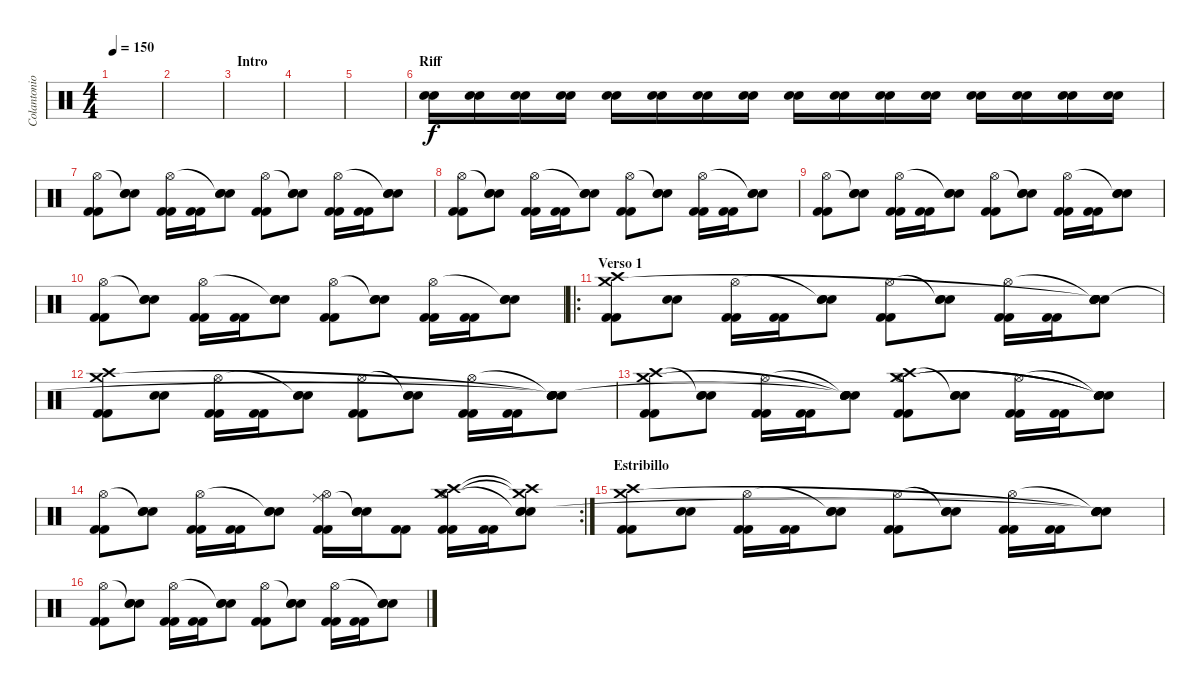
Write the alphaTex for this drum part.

\track ("Colantonio (Bateria)" "Colantonio") {instrument percussion}
\staff {score}
\articulation defaults
\ts (4 4)
\tempo 150
\clef neutral
\ks c
|
|
\section ("" "Intro")
|
|
|
\section ("" "Riff")
("Snare (hit) 2" "Snare (hit) 2").16 ("Snare (hit) 2" "Snare (hit) 2").16 ("Snare (hit) 2" "Snare (hit) 2").16 ("Snare (hit) 2" "Snare (hit) 2").16 ("Snare (hit) 2" "Snare (hit) 2").16 ("Snare (hit) 2" "Snare (hit) 2").16 ("Snare (hit) 2" "Snare (hit) 2").16 ("Snare (hit) 2" "Snare (hit) 2").16 ("Snare (hit) 2" "Snare (hit) 2").16 ("Snare (hit) 2" "Snare (hit) 2").16 ("Snare (hit) 2" "Snare (hit) 2").16 ("Snare (hit) 2" "Snare (hit) 2").16 ("Snare (hit) 2" "Snare (hit) 2").16 ("Snare (hit) 2" "Snare (hit) 2").16 ("Snare (hit) 2" "Snare (hit) 2").16 ("Snare (hit) 2" "Snare (hit) 2").16 |
("Kick (hit) 2" "Kick (hit) 2" "Hi-Hat (open)").8 ("Snare (hit) 2" "Snare (hit) 2" "Snare (hit)"{t}).8 ("Kick (hit) 2" "Kick (hit) 2" "Hi-Hat (open)").16 ("Kick (hit) 2" "Kick (hit) 2").16 ("Snare (hit) 2" "Snare (hit) 2" "Snare (hit)"{t}).8 ("Kick (hit) 2" "Kick (hit) 2" "Hi-Hat (open)").8 ("Snare (hit) 2" "Snare (hit) 2" "Snare (hit)"{t}).8 ("Kick (hit) 2" "Kick (hit) 2" "Hi-Hat (open)").16 ("Kick (hit) 2" "Kick (hit) 2").16 ("Snare (hit) 2" "Snare (hit) 2" "Snare (hit)"{t}).8 |
("Kick (hit) 2" "Kick (hit) 2" "Hi-Hat (open)").8 ("Snare (hit) 2" "Snare (hit) 2" "Snare (hit)"{t}).8 ("Kick (hit) 2" "Kick (hit) 2" "Hi-Hat (open)").16 ("Kick (hit) 2" "Kick (hit) 2").16 ("Snare (hit) 2" "Snare (hit) 2" "Snare (hit)"{t}).8 ("Kick (hit) 2" "Kick (hit) 2" "Hi-Hat (open)").8 ("Snare (hit) 2" "Snare (hit) 2" "Snare (hit)"{t}).8 ("Kick (hit) 2" "Kick (hit) 2" "Hi-Hat (open)").16 ("Kick (hit) 2" "Kick (hit) 2").16 ("Snare (hit) 2" "Snare (hit) 2" "Snare (hit)"{t}).8 |
("Kick (hit) 2" "Kick (hit) 2" "Hi-Hat (open)").8 ("Snare (hit) 2" "Snare (hit) 2" "Snare (hit)"{t}).8 ("Kick (hit) 2" "Kick (hit) 2" "Hi-Hat (open)").16 ("Kick (hit) 2" "Kick (hit) 2").16 ("Snare (hit) 2" "Snare (hit) 2" "Snare (hit)"{t}).8 ("Kick (hit) 2" "Kick (hit) 2" "Hi-Hat (open)").8 ("Snare (hit) 2" "Snare (hit) 2" "Snare (hit)"{t}).8 ("Kick (hit) 2" "Kick (hit) 2" "Hi-Hat (open)").16 ("Kick (hit) 2" "Kick (hit) 2").16 ("Snare (hit) 2" "Snare (hit) 2" "Snare (hit)"{t}).8 |
("Kick (hit) 2" "Kick (hit) 2" "Hi-Hat (open)").8 ("Snare (hit) 2" "Snare (hit) 2" "Snare (hit)"{t}).8 ("Kick (hit) 2" "Kick (hit) 2" "Hi-Hat (open)").16 ("Kick (hit) 2" "Kick (hit) 2").16 ("Snare (hit) 2" "Snare (hit) 2" "Snare (hit)"{t}).8 ("Kick (hit) 2" "Kick (hit) 2" "Hi-Hat (open)").8 ("Snare (hit) 2" "Snare (hit) 2" "Snare (hit)"{t}).8 ("Kick (hit) 2" "Kick (hit) 2" "Hi-Hat (open)").16 ("Kick (hit) 2" "Kick (hit) 2").16 ("Snare (hit) 2" "Snare (hit) 2" "Snare (hit)"{t}).8 |
\ro
\section ("" "Verso 1")
("Kick (hit) 2" "Kick (hit) 2" "Crash high (hit)" "Crash medium (hit)").8 ("Snare (hit) 2" "Snare (hit) 2").8 ("Kick (hit) 2" "Kick (hit) 2" "Hi-Hat (open)").16 ("Kick (hit) 2" "Kick (hit) 2").16 ("Snare (hit) 2" "Snare (hit) 2" "Snare (hit)"{t}).8 ("Kick (hit) 2" "Kick (hit) 2" "Hi-Hat (open)").8 ("Snare (hit) 2" "Snare (hit) 2" "Snare (hit)"{t}).8 ("Kick (hit) 2" "Kick (hit) 2" "Hi-Hat (open)").16 ("Kick (hit) 2" "Kick (hit) 2").16 ("Snare (hit) 2" "Snare (hit) 2" "Snare (hit)"{t} "Snare (hit)"{t} "Snare (hit)").8 |
("Kick (hit) 2" "Kick (hit) 2" "Crash high (hit)" "Crash medium (hit)").8 ("Snare (hit) 2" "Snare (hit) 2").8 ("Kick (hit) 2" "Kick (hit) 2" "Hi-Hat (open)").16 ("Kick (hit) 2" "Kick (hit) 2").16 ("Snare (hit) 2" "Snare (hit) 2" "Snare (hit)"{t}).8 ("Kick (hit) 2" "Kick (hit) 2" "Hi-Hat (open)").8 ("Snare (hit) 2" "Snare (hit) 2" "Snare (hit)"{t}).8 ("Kick (hit) 2" "Kick (hit) 2" "Hi-Hat (open)").16 ("Kick (hit) 2" "Kick (hit) 2").16 ("Snare (hit) 2" "Snare (hit) 2" "Snare (hit)"{t} "Snare (hit)"{t} "Snare (hit)"{t}).8 |
("Kick (hit) 2" "Kick (hit) 2" "Crash high (hit)" "Crash medium (hit)").8 ("Snare (hit) 2" "Snare (hit) 2" "Snare (hit)"{t}).8 ("Kick (hit) 2" "Kick (hit) 2" "Hi-Hat (open)").16 ("Kick (hit) 2" "Kick (hit) 2").16 ("Snare (hit) 2" "Snare (hit) 2" "Snare (hit)"{t} "Snare (hit)"{t} "Snare (hit)"{t}).8 ("Kick (hit) 2" "Kick (hit) 2" "Crash high (hit)" "Hi-Hat (open)" "Crash medium (hit)").8 ("Snare (hit) 2" "Snare (hit) 2" "Snare (hit)"{t}).8 ("Kick (hit) 2" "Kick (hit) 2" "Hi-Hat (open)").16 ("Kick (hit) 2" "Kick (hit) 2").16 ("Snare (hit) 2" "Snare (hit) 2" "Snare (hit)"{t} "Snare (hit)"{t} "Snare (hit)"{t}).8 |
\rc 2
("Kick (hit) 2" "Kick (hit) 2" "Hi-Hat (open)").8 ("Snare (hit) 2" "Snare (hit) 2" "Snare (hit)"{t}).8 ("Kick (hit) 2" "Kick (hit) 2" "Hi-Hat (open)").16 ("Kick (hit) 2" "Kick (hit) 2").16 ("Snare (hit) 2" "Snare (hit) 2" "Snare (hit)"{t}).8 ("Kick (hit) 2" "Kick (hit) 2" "Ride (middle)" "Hi-Hat (open)").16 ("Snare (hit) 2" "Snare (hit) 2" "Snare (hit)"{t}).16 ("Kick (hit) 2" "Kick (hit) 2").8 ("Kick (hit) 2" "Kick (hit) 2" "Crash medium (hit)" "Crash high (hit)" "Hi-Hat (open)").16 ("Kick (hit) 2" "Kick (hit) 2").16 ("Snare (hit) 2" "Snare (hit) 2" "Crash medium (hit)"{t} "Crash high (hit)"{t} "Snare (hit)"{t}).8 |
\section ("" "Estribillo")
("Kick (hit) 2" "Kick (hit) 2" "Crash high (hit)" "Crash medium (hit)").8 ("Snare (hit) 2" "Snare (hit) 2").8 ("Kick (hit) 2" "Kick (hit) 2" "Hi-Hat (open)").16 ("Kick (hit) 2" "Kick (hit) 2").16 ("Snare (hit) 2" "Snare (hit) 2" "Snare (hit)"{t}).8 ("Kick (hit) 2" "Kick (hit) 2" "Hi-Hat (open)").8 ("Snare (hit) 2" "Snare (hit) 2" "Snare (hit)"{t}).8 ("Kick (hit) 2" "Kick (hit) 2" "Hi-Hat (open)").16 ("Kick (hit) 2" "Kick (hit) 2").16 ("Snare (hit) 2" "Snare (hit) 2" "Snare (hit)"{t} "Snare (hit)"{t} "Snare (hit)"{t}).8 |
("Kick (hit) 2" "Kick (hit) 2" "Hi-Hat (open)").8 ("Snare (hit) 2" "Snare (hit) 2" "Snare (hit)"{t}).8 ("Kick (hit) 2" "Kick (hit) 2" "Hi-Hat (open)").16 ("Kick (hit) 2" "Kick (hit) 2").16 ("Snare (hit) 2" "Snare (hit) 2" "Snare (hit)"{t}).8 ("Kick (hit) 2" "Kick (hit) 2" "Hi-Hat (open)").8 ("Snare (hit) 2" "Snare (hit) 2" "Snare (hit)"{t}).8 ("Kick (hit) 2" "Kick (hit) 2" "Hi-Hat (open)").16 ("Kick (hit) 2" "Kick (hit) 2").16 ("Snare (hit) 2" "Snare (hit) 2" "Snare (hit)"{t}).8
